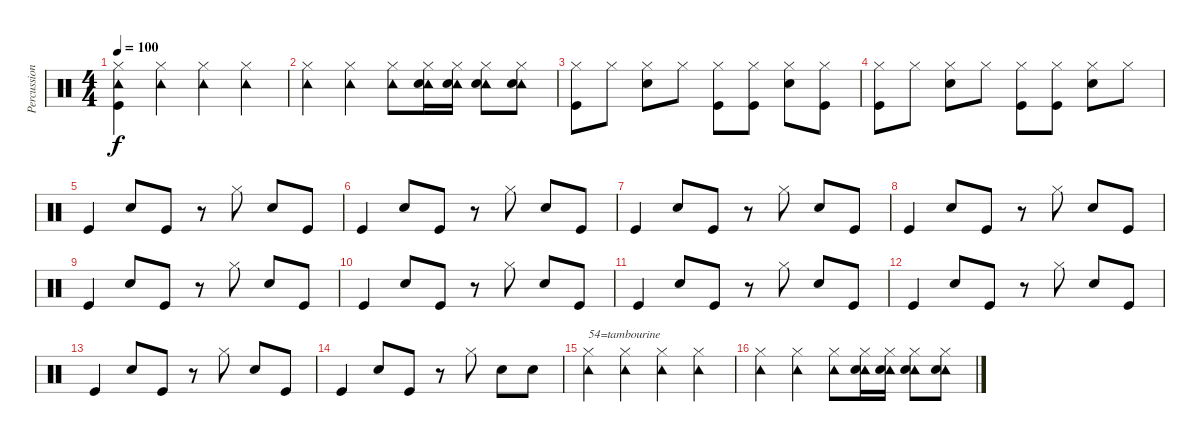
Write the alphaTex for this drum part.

\track ("Percussion" "Percussion") {instrument percussion}
\staff {score}
\articulation defaults
\ts (4 4)
\tempo 100
\clef neutral
\ks c
("Hi-Hat (closed)" "Tambourine (hit)" "Kick (hit)").4{dy f} ("Hi-Hat (closed)" "Tambourine (hit)").4 ("Hi-Hat (closed)" "Tambourine (hit)").4 ("Hi-Hat (closed)" "Tambourine (hit)").4 |
("Hi-Hat (closed)" "Tambourine (hit)").4 ("Hi-Hat (closed)" "Tambourine (hit)").4 ("Hi-Hat (closed)" "Tambourine (hit)").8 ("Hi-Hat (closed)" "Tambourine (hit)" "Snare (hit) 2").16 ("Hi-Hat (closed)" "Tambourine (hit)" "Snare (hit) 2").16 ("Hi-Hat (closed)" "Tambourine (hit)" "Snare (hit) 2").8 ("Hi-Hat (closed)" "Tambourine (hit)" "Snare (hit) 2").8 |
("Hi-Hat (closed)" "Kick (hit)").8 "Hi-Hat (closed)".8 ("Hi-Hat (closed)" "Snare (hit) 2").8 "Hi-Hat (closed)".8 ("Hi-Hat (closed)" "Kick (hit)").8 ("Hi-Hat (closed)" "Kick (hit)").8 ("Hi-Hat (closed)" "Snare (hit) 2").8 ("Hi-Hat (closed)" "Kick (hit)").8 |
("Hi-Hat (closed)" "Kick (hit)").8 "Hi-Hat (closed)".8 ("Hi-Hat (closed)" "Snare (hit) 2").8 "Hi-Hat (closed)".8 ("Hi-Hat (closed)" "Kick (hit)").8 ("Hi-Hat (closed)" "Kick (hit)").8 ("Hi-Hat (closed)" "Snare (hit) 2").8 "Hi-Hat (closed)".8 |
"Kick (hit)".4 "Snare (hit) 2".8 "Kick (hit)".8 r.8 "Hi-Hat (closed)".8 "Snare (hit) 2".8 "Kick (hit)".8 |
"Kick (hit)".4 "Snare (hit) 2".8 "Kick (hit)".8 r.8 "Hi-Hat (closed)".8 "Snare (hit) 2".8 "Kick (hit)".8 |
"Kick (hit)".4 "Snare (hit) 2".8 "Kick (hit)".8 r.8 "Hi-Hat (closed)".8 "Snare (hit) 2".8 "Kick (hit)".8 |
"Kick (hit)".4 "Snare (hit) 2".8 "Kick (hit)".8 r.8 "Hi-Hat (closed)".8 "Snare (hit) 2".8 "Kick (hit)".8 |
"Kick (hit)".4 "Snare (hit) 2".8 "Kick (hit)".8 r.8 "Hi-Hat (closed)".8 "Snare (hit) 2".8 "Kick (hit)".8 |
"Kick (hit)".4 "Snare (hit) 2".8 "Kick (hit)".8 r.8 "Hi-Hat (closed)".8 "Snare (hit) 2".8 "Kick (hit)".8 |
"Kick (hit)".4 "Snare (hit) 2".8 "Kick (hit)".8 r.8 "Hi-Hat (closed)".8 "Snare (hit) 2".8 "Kick (hit)".8 |
"Kick (hit)".4 "Snare (hit) 2".8 "Kick (hit)".8 r.8 "Hi-Hat (closed)".8 "Snare (hit) 2".8 "Kick (hit)".8 |
"Kick (hit)".4 "Snare (hit) 2".8 "Kick (hit)".8 r.8 "Hi-Hat (closed)".8 "Snare (hit) 2".8 "Kick (hit)".8 |
"Kick (hit)".4 "Snare (hit) 2".8 "Kick (hit)".8 r.8 "Hi-Hat (closed)".8 "Snare (hit) 2".8 "Snare (hit) 2".8 |
("Hi-Hat (closed)" "Tambourine (hit)").4{txt "54=tambourine"} ("Hi-Hat (closed)" "Tambourine (hit)").4 ("Hi-Hat (closed)" "Tambourine (hit)").4 ("Hi-Hat (closed)" "Tambourine (hit)").4 |
("Hi-Hat (closed)" "Tambourine (hit)").4 ("Hi-Hat (closed)" "Tambourine (hit)").4 ("Hi-Hat (closed)" "Tambourine (hit)").8 ("Hi-Hat (closed)" "Tambourine (hit)" "Snare (hit) 2").16 ("Hi-Hat (closed)" "Tambourine (hit)" "Snare (hit) 2").16 ("Hi-Hat (closed)" "Tambourine (hit)" "Snare (hit) 2").8 ("Hi-Hat (closed)" "Tambourine (hit)" "Snare (hit) 2").8
